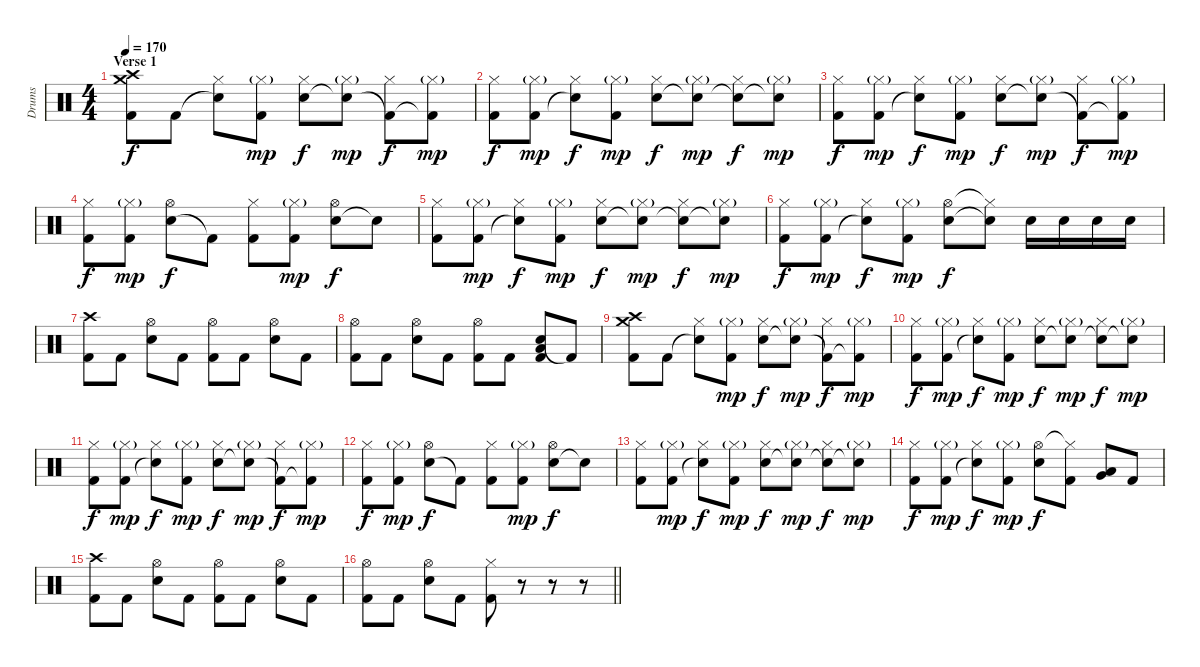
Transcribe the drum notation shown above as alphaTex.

\track ("Drums" "Drums") {instrument percussion}
\staff {score}
\articulation defaults
\ts (4 4)
\section ("" "Verse 1")
\tempo 170
\clef neutral
\ks c
("Kick (hit) 2" "Crash medium (hit)" "Crash high (hit)").8{dy f} "Kick (hit) 2".8 ("Snare (hit)"{t} "Hi-Hat (closed)").8 ("Kick (hit) 2" "Hi-Hat (closed)"{g}).8{dy mp} ("Electric Snare (hit)" "Hi-Hat (closed)").8{dy f} ("Snare (hit)"{t} "Hi-Hat (closed)"{g}).8{dy mp} ("Kick (hit) 2"{t} "Hi-Hat (closed)").8{dy f} ("Kick (hit) 2"{t} "Hi-Hat (closed)"{g}).8{dy mp} |
("Kick (hit) 2" "Hi-Hat (closed)").8{dy f} ("Kick (hit) 2" "Hi-Hat (closed)"{g}).8{dy mp} ("Electric Snare (hit)"{t} "Hi-Hat (closed)").8{dy f} ("Kick (hit) 2" "Hi-Hat (closed)"{g}).8{dy mp} ("Electric Snare (hit)" "Hi-Hat (closed)").8{dy f} ("Snare (hit)"{t} "Hi-Hat (closed)"{g}).8{dy mp} ("Snare (hit)"{t} "Hi-Hat (closed)").8{dy f} ("Snare (hit)"{t} "Hi-Hat (closed)"{g}).8{dy mp} |
("Kick (hit) 2" "Hi-Hat (closed)").8{dy f} ("Kick (hit) 2" "Hi-Hat (closed)"{g}).8{dy mp} ("Snare (hit)"{t} "Hi-Hat (closed)").8{dy f} ("Kick (hit) 2" "Hi-Hat (closed)"{g}).8{dy mp} ("Electric Snare (hit)" "Hi-Hat (closed)").8{dy f} ("Snare (hit)"{t} "Hi-Hat (closed)"{g}).8{dy mp} ("Kick (hit) 2"{t} "Hi-Hat (closed)").8{dy f} ("Kick (hit) 2"{t} "Hi-Hat (closed)"{g}).8{dy mp} |
("Kick (hit) 2" "Hi-Hat (closed)").8{dy f} ("Kick (hit) 2" "Hi-Hat (closed)"{g}).8{dy mp} ("Electric Snare (hit)" "Hi-Hat (open)").8{dy f} "Kick (hit) 2"{t}.8 ("Kick (hit) 2" "Hi-Hat (closed)").8 ("Kick (hit) 2" "Hi-Hat (closed)"{g}).8{dy mp} ("Electric Snare (hit)" "Hi-Hat (open)").8{dy f} "Snare (hit)"{t}.8 |
("Kick (hit) 2" "Hi-Hat (closed)").8 ("Kick (hit) 2" "Hi-Hat (closed)"{g}).8{dy mp} ("Electric Snare (hit)"{t} "Hi-Hat (closed)").8{dy f} ("Kick (hit) 2" "Hi-Hat (closed)"{g}).8{dy mp} ("Electric Snare (hit)" "Hi-Hat (closed)").8{dy f} ("Snare (hit)"{t} "Hi-Hat (closed)"{g}).8{dy mp} ("Snare (hit)"{t} "Hi-Hat (closed)").8{dy f} ("Snare (hit)"{t} "Hi-Hat (closed)"{g}).8{dy mp} |
("Kick (hit) 2" "Hi-Hat (closed)").8{dy f} ("Kick (hit) 2" "Hi-Hat (closed)"{g}).8{dy mp} ("Snare (hit)"{t} "Hi-Hat (closed)").8{dy f} ("Kick (hit) 2" "Hi-Hat (closed)"{g}).8{dy mp} ("Electric Snare (hit)" "Hi-Hat (open)").8{dy f} ("Snare (hit)"{t} "Hi-Hat (closed)"{t}).8 "Electric Snare (hit)".16 "Electric Snare (hit)".16 "Electric Snare (hit)".16 "Electric Snare (hit)".16 |
("Kick (hit) 2" "Crash high (hit)").8 "Kick (hit) 2".8 ("Electric Snare (hit)" "Hi-Hat (open)").8 "Kick (hit) 2".8 ("Kick (hit) 2" "Hi-Hat (open)").8 "Kick (hit) 2".8 ("Electric Snare (hit)" "Hi-Hat (open)").8 "Kick (hit) 2".8 |
("Kick (hit) 2" "Hi-Hat (open)").8 "Kick (hit) 2".8 ("Electric Snare (hit)" "Hi-Hat (open)").8 "Kick (hit) 2".8 ("Kick (hit) 2" "Hi-Hat (open)").8 "Kick (hit) 2".8 ("Electric Snare (hit)" "Low Floor Tom (hit)" "Kick (hit) 2").8 "Kick (hit) 2"{t}.8 |
("Kick (hit) 2" "Crash medium (hit)" "Crash high (hit)").8 "Kick (hit) 2".8 ("Snare (hit)"{t} "Hi-Hat (closed)").8 ("Kick (hit) 2" "Hi-Hat (closed)"{g}).8{dy mp} ("Electric Snare (hit)" "Hi-Hat (closed)").8{dy f} ("Snare (hit)"{t} "Hi-Hat (closed)"{g}).8{dy mp} ("Kick (hit) 2"{t} "Hi-Hat (closed)").8{dy f} ("Kick (hit) 2"{t} "Hi-Hat (closed)"{g}).8{dy mp} |
("Kick (hit) 2" "Hi-Hat (closed)").8{dy f} ("Kick (hit) 2" "Hi-Hat (closed)"{g}).8{dy mp} ("Electric Snare (hit)"{t} "Hi-Hat (closed)").8{dy f} ("Kick (hit) 2" "Hi-Hat (closed)"{g}).8{dy mp} ("Electric Snare (hit)" "Hi-Hat (closed)").8{dy f} ("Snare (hit)"{t} "Hi-Hat (closed)"{g}).8{dy mp} ("Snare (hit)"{t} "Hi-Hat (closed)").8{dy f} ("Snare (hit)"{t} "Hi-Hat (closed)"{g}).8{dy mp} |
("Kick (hit) 2" "Hi-Hat (closed)").8{dy f} ("Kick (hit) 2" "Hi-Hat (closed)"{g}).8{dy mp} ("Snare (hit)"{t} "Hi-Hat (closed)").8{dy f} ("Kick (hit) 2" "Hi-Hat (closed)"{g}).8{dy mp} ("Electric Snare (hit)" "Hi-Hat (closed)").8{dy f} ("Snare (hit)"{t} "Hi-Hat (closed)"{g}).8{dy mp} ("Kick (hit) 2"{t} "Hi-Hat (closed)").8{dy f} ("Kick (hit) 2"{t} "Hi-Hat (closed)"{g}).8{dy mp} |
("Kick (hit) 2" "Hi-Hat (closed)").8{dy f} ("Kick (hit) 2" "Hi-Hat (closed)"{g}).8{dy mp} ("Electric Snare (hit)" "Hi-Hat (open)").8{dy f} "Kick (hit) 2"{t}.8 ("Kick (hit) 2" "Hi-Hat (closed)").8 ("Kick (hit) 2" "Hi-Hat (closed)"{g}).8{dy mp} ("Electric Snare (hit)" "Hi-Hat (open)").8{dy f} "Snare (hit)"{t}.8 |
("Kick (hit) 2" "Hi-Hat (closed)").8 ("Kick (hit) 2" "Hi-Hat (closed)"{g}).8{dy mp} ("Electric Snare (hit)"{t} "Hi-Hat (closed)").8{dy f} ("Kick (hit) 2" "Hi-Hat (closed)"{g}).8{dy mp} ("Electric Snare (hit)" "Hi-Hat (closed)").8{dy f} ("Snare (hit)"{t} "Hi-Hat (closed)"{g}).8{dy mp} ("Snare (hit)"{t} "Hi-Hat (closed)").8{dy f} ("Snare (hit)"{t} "Hi-Hat (closed)"{g}).8{dy mp} |
("Kick (hit) 2" "Hi-Hat (closed)").8{dy f} ("Kick (hit) 2" "Hi-Hat (closed)"{g}).8{dy mp} ("Snare (hit)"{t} "Hi-Hat (closed)").8{dy f} ("Kick (hit) 2" "Hi-Hat (closed)"{g}).8{dy mp} ("Electric Snare (hit)" "Hi-Hat (open)").8{dy f} ("Kick (hit) 2" "Hi-Hat (closed)"{t}).8 ("Low Tom (hit)" "Very Low Tom (hit)").8 "Kick (hit) 2".8 |
("Kick (hit) 2" "Crash high (hit)").8 "Kick (hit) 2".8 ("Electric Snare (hit)" "Hi-Hat (open)").8 "Kick (hit) 2".8 ("Kick (hit) 2" "Hi-Hat (open)").8 "Kick (hit) 2".8 ("Electric Snare (hit)" "Hi-Hat (open)").8 "Kick (hit) 2".8 |
\barLineRight lightlight
("Kick (hit) 2" "Hi-Hat (open)").8 "Kick (hit) 2".8 ("Electric Snare (hit)" "Hi-Hat (open)").8 "Kick (hit) 2".8 ("Kick (hit) 2" "Hi-Hat (closed)").8 r.8 r.8 r.8
